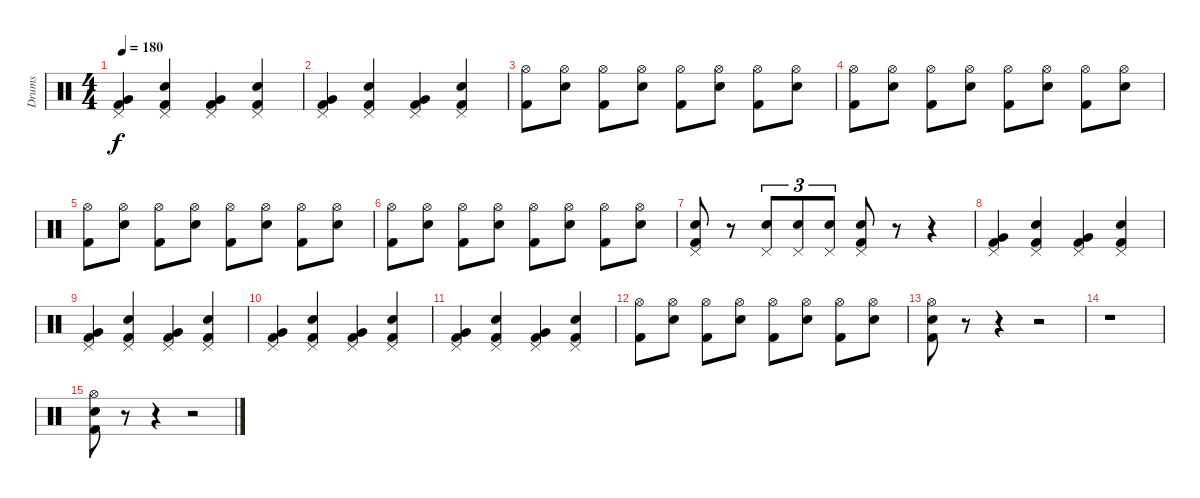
\track ("Drums" "Drums") {instrument percussion}
\staff {score}
\articulation defaults
\ts (4 4)
\tempo 180
\clef neutral
\ks c
("Very Low Tom (hit)" "Kick (hit) 2" "Pedal Hi-Hat (hit)").4{dy f} ("Snare (hit) 2" "Kick (hit) 2" "Pedal Hi-Hat (hit)").4 ("Very Low Tom (hit)" "Kick (hit) 2" "Pedal Hi-Hat (hit)").4 ("Snare (hit) 2" "Kick (hit) 2" "Pedal Hi-Hat (hit)").4 |
("Very Low Tom (hit)" "Kick (hit) 2" "Pedal Hi-Hat (hit)").4 ("Snare (hit) 2" "Kick (hit) 2" "Pedal Hi-Hat (hit)").4 ("Very Low Tom (hit)" "Kick (hit) 2" "Pedal Hi-Hat (hit)").4 ("Snare (hit) 2" "Kick (hit) 2" "Pedal Hi-Hat (hit)").4 |
("Kick (hit) 2" "Hi-Hat (open)").8 ("Electric Snare (hit)" "Hi-Hat (open)").8 ("Kick (hit) 2" "Hi-Hat (open)").8 ("Electric Snare (hit)" "Hi-Hat (open)").8 ("Kick (hit) 2" "Hi-Hat (open)").8 ("Electric Snare (hit)" "Hi-Hat (open)").8 ("Kick (hit) 2" "Hi-Hat (open)").8 ("Electric Snare (hit)" "Hi-Hat (open)").8 |
("Kick (hit) 2" "Hi-Hat (open)").8 ("Electric Snare (hit)" "Hi-Hat (open)").8 ("Kick (hit) 2" "Hi-Hat (open)").8 ("Electric Snare (hit)" "Hi-Hat (open)").8 ("Kick (hit) 2" "Hi-Hat (open)").8 ("Electric Snare (hit)" "Hi-Hat (open)").8 ("Kick (hit) 2" "Hi-Hat (open)").8 ("Electric Snare (hit)" "Hi-Hat (open)").8 |
("Kick (hit) 2" "Hi-Hat (open)").8 ("Electric Snare (hit)" "Hi-Hat (open)").8 ("Kick (hit) 2" "Hi-Hat (open)").8 ("Electric Snare (hit)" "Hi-Hat (open)").8 ("Kick (hit) 2" "Hi-Hat (open)").8 ("Electric Snare (hit)" "Hi-Hat (open)").8 ("Kick (hit) 2" "Hi-Hat (open)").8 ("Electric Snare (hit)" "Hi-Hat (open)").8 |
("Kick (hit) 2" "Hi-Hat (open)").8 ("Electric Snare (hit)" "Hi-Hat (open)").8 ("Kick (hit) 2" "Hi-Hat (open)").8 ("Electric Snare (hit)" "Hi-Hat (open)").8 ("Kick (hit) 2" "Hi-Hat (open)").8 ("Electric Snare (hit)" "Hi-Hat (open)").8 ("Kick (hit) 2" "Hi-Hat (open)").8 ("Electric Snare (hit)" "Hi-Hat (open)").8 |
("Kick (hit) 2" "Electric Snare (hit)" "Pedal Hi-Hat (hit)").8 r.8 ("Electric Snare (hit)" "Pedal Hi-Hat (hit)").8{tu (3 2)} ("Electric Snare (hit)" "Pedal Hi-Hat (hit)").8{tu (3 2)} ("Electric Snare (hit)" "Pedal Hi-Hat (hit)").8{tu (3 2)} ("Kick (hit) 2" "Electric Snare (hit)" "Pedal Hi-Hat (hit)").8 r.8 r.4 |
("Very Low Tom (hit)" "Kick (hit) 2" "Pedal Hi-Hat (hit)").4 ("Snare (hit) 2" "Kick (hit) 2" "Pedal Hi-Hat (hit)").4 ("Very Low Tom (hit)" "Kick (hit) 2" "Pedal Hi-Hat (hit)").4 ("Snare (hit) 2" "Kick (hit) 2" "Pedal Hi-Hat (hit)").4 |
("Very Low Tom (hit)" "Kick (hit) 2" "Pedal Hi-Hat (hit)").4 ("Snare (hit) 2" "Kick (hit) 2" "Pedal Hi-Hat (hit)").4 ("Very Low Tom (hit)" "Kick (hit) 2" "Pedal Hi-Hat (hit)").4 ("Snare (hit) 2" "Kick (hit) 2" "Pedal Hi-Hat (hit)").4 |
("Very Low Tom (hit)" "Kick (hit) 2" "Pedal Hi-Hat (hit)").4 ("Snare (hit) 2" "Kick (hit) 2" "Pedal Hi-Hat (hit)").4 ("Very Low Tom (hit)" "Kick (hit) 2" "Pedal Hi-Hat (hit)").4 ("Snare (hit) 2" "Kick (hit) 2" "Pedal Hi-Hat (hit)").4 |
("Very Low Tom (hit)" "Kick (hit) 2" "Pedal Hi-Hat (hit)").4 ("Snare (hit) 2" "Kick (hit) 2" "Pedal Hi-Hat (hit)").4 ("Very Low Tom (hit)" "Kick (hit) 2" "Pedal Hi-Hat (hit)").4 ("Snare (hit) 2" "Kick (hit) 2" "Pedal Hi-Hat (hit)").4 |
("Kick (hit) 2" "Hi-Hat (open)").8 ("Electric Snare (hit)" "Hi-Hat (open)").8 ("Kick (hit) 2" "Hi-Hat (open)").8 ("Electric Snare (hit)" "Hi-Hat (open)").8 ("Kick (hit) 2" "Hi-Hat (open)").8 ("Electric Snare (hit)" "Hi-Hat (open)").8 ("Kick (hit) 2" "Hi-Hat (open)").8 ("Electric Snare (hit)" "Hi-Hat (open)").8 |
("Snare (hit) 2" "Kick (hit) 2" "Hi-Hat (open)").8 r.8 r.4 r.2 |
r.1 |
("Snare (hit) 2" "Kick (hit) 2" "Hi-Hat (open)").8 r.8 r.4 r.2
